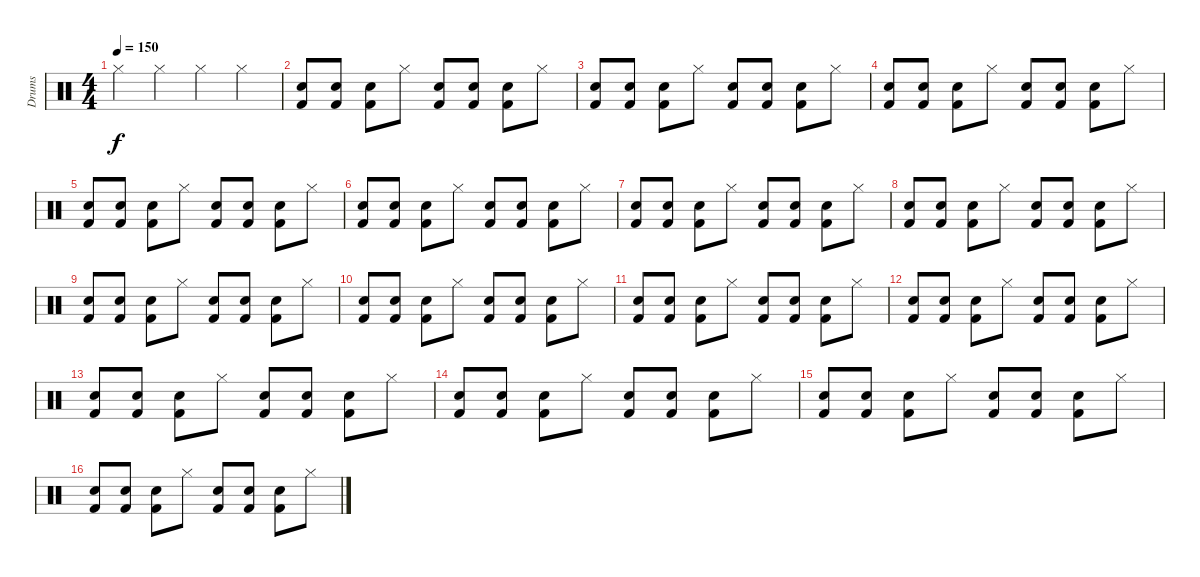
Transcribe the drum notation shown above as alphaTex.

\track ("Drums" "Drums") {instrument percussion}
\staff {score}
\articulation defaults
\ts (4 4)
\tempo 150
\clef neutral
\ks c "Hi-Hat (closed)".4{dy f} "Hi-Hat (closed)".4 "Hi-Hat (closed)".4 "Hi-Hat (closed)".4
|
("Snare (hit) 2" "Kick (hit) 2").8 ("Snare (hit) 2" "Kick (hit) 2").8 ("Snare (hit) 2" "Kick (hit) 2").8 "Hi-Hat (closed)".8 ("Snare (hit) 2" "Kick (hit) 2").8 ("Snare (hit) 2" "Kick (hit) 2").8 ("Snare (hit) 2" "Kick (hit) 2").8 "Hi-Hat (closed)".8 |
("Snare (hit) 2" "Kick (hit) 2").8 ("Snare (hit) 2" "Kick (hit) 2").8 ("Snare (hit) 2" "Kick (hit) 2").8 "Hi-Hat (closed)".8 ("Snare (hit) 2" "Kick (hit) 2").8 ("Snare (hit) 2" "Kick (hit) 2").8 ("Snare (hit) 2" "Kick (hit) 2").8 "Hi-Hat (closed)".8 |
("Snare (hit) 2" "Kick (hit) 2").8 ("Snare (hit) 2" "Kick (hit) 2").8 ("Snare (hit) 2" "Kick (hit) 2").8 "Hi-Hat (closed)".8 ("Snare (hit) 2" "Kick (hit) 2").8 ("Snare (hit) 2" "Kick (hit) 2").8 ("Snare (hit) 2" "Kick (hit) 2").8 "Hi-Hat (closed)".8 |
("Snare (hit) 2" "Kick (hit) 2").8 ("Snare (hit) 2" "Kick (hit) 2").8 ("Snare (hit) 2" "Kick (hit) 2").8 "Hi-Hat (closed)".8 ("Snare (hit) 2" "Kick (hit) 2").8 ("Snare (hit) 2" "Kick (hit) 2").8 ("Snare (hit) 2" "Kick (hit) 2").8 "Hi-Hat (closed)".8 |
("Snare (hit) 2" "Kick (hit) 2").8 ("Snare (hit) 2" "Kick (hit) 2").8 ("Snare (hit) 2" "Kick (hit) 2").8 "Hi-Hat (closed)".8 ("Snare (hit) 2" "Kick (hit) 2").8 ("Snare (hit) 2" "Kick (hit) 2").8 ("Snare (hit) 2" "Kick (hit) 2").8 "Hi-Hat (closed)".8 |
("Snare (hit) 2" "Kick (hit) 2").8 ("Snare (hit) 2" "Kick (hit) 2").8 ("Snare (hit) 2" "Kick (hit) 2").8 "Hi-Hat (closed)".8 ("Snare (hit) 2" "Kick (hit) 2").8 ("Snare (hit) 2" "Kick (hit) 2").8 ("Snare (hit) 2" "Kick (hit) 2").8 "Hi-Hat (closed)".8 |
("Snare (hit) 2" "Kick (hit) 2").8 ("Snare (hit) 2" "Kick (hit) 2").8 ("Snare (hit) 2" "Kick (hit) 2").8 "Hi-Hat (closed)".8 ("Snare (hit) 2" "Kick (hit) 2").8 ("Snare (hit) 2" "Kick (hit) 2").8 ("Snare (hit) 2" "Kick (hit) 2").8 "Hi-Hat (closed)".8 |
("Snare (hit) 2" "Kick (hit) 2").8 ("Snare (hit) 2" "Kick (hit) 2").8 ("Snare (hit) 2" "Kick (hit) 2").8 "Hi-Hat (closed)".8 ("Snare (hit) 2" "Kick (hit) 2").8 ("Snare (hit) 2" "Kick (hit) 2").8 ("Snare (hit) 2" "Kick (hit) 2").8 "Hi-Hat (closed)".8 |
("Snare (hit) 2" "Kick (hit) 2").8 ("Snare (hit) 2" "Kick (hit) 2").8 ("Snare (hit) 2" "Kick (hit) 2").8 "Hi-Hat (closed)".8 ("Snare (hit) 2" "Kick (hit) 2").8 ("Snare (hit) 2" "Kick (hit) 2").8 ("Snare (hit) 2" "Kick (hit) 2").8 "Hi-Hat (closed)".8 |
("Snare (hit) 2" "Kick (hit) 2").8 ("Snare (hit) 2" "Kick (hit) 2").8 ("Snare (hit) 2" "Kick (hit) 2").8 "Hi-Hat (closed)".8 ("Snare (hit) 2" "Kick (hit) 2").8 ("Snare (hit) 2" "Kick (hit) 2").8 ("Snare (hit) 2" "Kick (hit) 2").8 "Hi-Hat (closed)".8 |
("Snare (hit) 2" "Kick (hit) 2").8 ("Snare (hit) 2" "Kick (hit) 2").8 ("Snare (hit) 2" "Kick (hit) 2").8 "Hi-Hat (closed)".8 ("Snare (hit) 2" "Kick (hit) 2").8 ("Snare (hit) 2" "Kick (hit) 2").8 ("Snare (hit) 2" "Kick (hit) 2").8 "Hi-Hat (closed)".8 |
("Snare (hit) 2" "Kick (hit) 2").8 ("Snare (hit) 2" "Kick (hit) 2").8 ("Snare (hit) 2" "Kick (hit) 2").8 "Hi-Hat (closed)".8 ("Snare (hit) 2" "Kick (hit) 2").8 ("Snare (hit) 2" "Kick (hit) 2").8 ("Snare (hit) 2" "Kick (hit) 2").8 "Hi-Hat (closed)".8 |
("Snare (hit) 2" "Kick (hit) 2").8 ("Snare (hit) 2" "Kick (hit) 2").8 ("Snare (hit) 2" "Kick (hit) 2").8 "Hi-Hat (closed)".8 ("Snare (hit) 2" "Kick (hit) 2").8 ("Snare (hit) 2" "Kick (hit) 2").8 ("Snare (hit) 2" "Kick (hit) 2").8 "Hi-Hat (closed)".8 |
("Snare (hit) 2" "Kick (hit) 2").8 ("Snare (hit) 2" "Kick (hit) 2").8 ("Snare (hit) 2" "Kick (hit) 2").8 "Hi-Hat (closed)".8 ("Snare (hit) 2" "Kick (hit) 2").8 ("Snare (hit) 2" "Kick (hit) 2").8 ("Snare (hit) 2" "Kick (hit) 2").8 "Hi-Hat (closed)".8 |
("Snare (hit) 2" "Kick (hit) 2").8 ("Snare (hit) 2" "Kick (hit) 2").8 ("Snare (hit) 2" "Kick (hit) 2").8 "Hi-Hat (closed)".8 ("Snare (hit) 2" "Kick (hit) 2").8 ("Snare (hit) 2" "Kick (hit) 2").8 ("Snare (hit) 2" "Kick (hit) 2").8 "Hi-Hat (closed)".8
